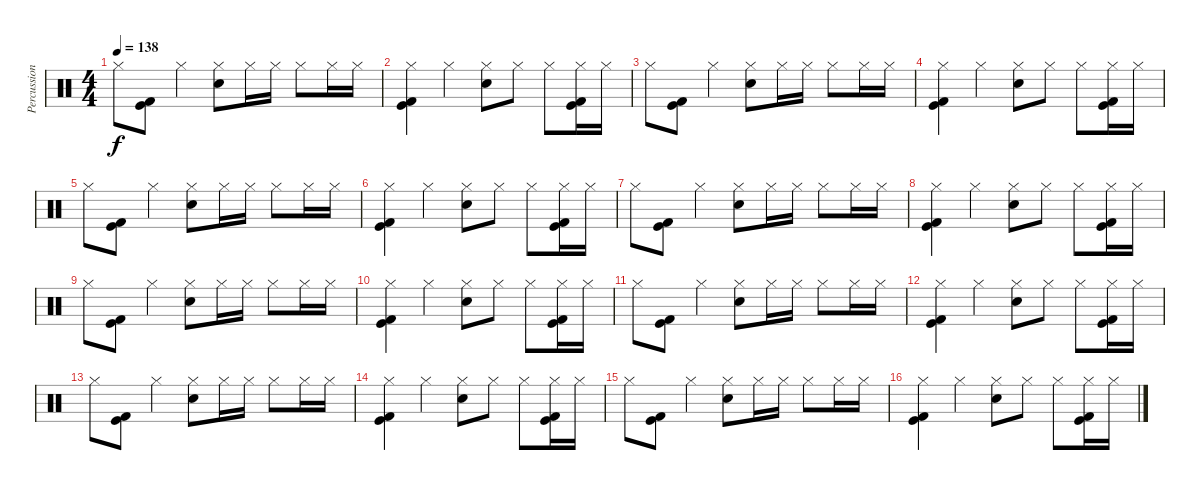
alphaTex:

\track ("Percussion" "Percussion") {instrument percussion}
\staff {score}
\articulation defaults
\ts (4 4)
\tempo 138
\clef neutral
\ks c "Hi-Hat (closed)".8{dy f}
("Kick (hit)" "Kick (hit) 2").8 "Hi-Hat (closed)".4 ("Hi-Hat (closed)" "Electric Snare (hit)").8 "Hi-Hat (closed)".16 "Hi-Hat (closed)".16 "Hi-Hat (closed)".8 "Hi-Hat (closed)".16 "Hi-Hat (closed)".16 |
("Hi-Hat (closed)" "Kick (hit)" "Kick (hit) 2").4 "Hi-Hat (closed)".4 ("Hi-Hat (closed)" "Electric Snare (hit)").8 "Hi-Hat (closed)".8 "Hi-Hat (closed)".8 ("Hi-Hat (closed)" "Kick (hit)" "Kick (hit) 2").16 "Hi-Hat (closed)".16 |
"Hi-Hat (closed)".8 ("Kick (hit)" "Kick (hit) 2").8 "Hi-Hat (closed)".4 ("Hi-Hat (closed)" "Electric Snare (hit)").8 "Hi-Hat (closed)".16 "Hi-Hat (closed)".16 "Hi-Hat (closed)".8 "Hi-Hat (closed)".16 "Hi-Hat (closed)".16 |
("Hi-Hat (closed)" "Kick (hit)" "Kick (hit) 2").4 "Hi-Hat (closed)".4 ("Hi-Hat (closed)" "Electric Snare (hit)").8 "Hi-Hat (closed)".8 "Hi-Hat (closed)".8 ("Hi-Hat (closed)" "Kick (hit)" "Kick (hit) 2").16 "Hi-Hat (closed)".16 |
"Hi-Hat (closed)".8 ("Kick (hit)" "Kick (hit) 2").8 "Hi-Hat (closed)".4 ("Hi-Hat (closed)" "Electric Snare (hit)").8 "Hi-Hat (closed)".16 "Hi-Hat (closed)".16 "Hi-Hat (closed)".8 "Hi-Hat (closed)".16 "Hi-Hat (closed)".16 |
("Hi-Hat (closed)" "Kick (hit)" "Kick (hit) 2").4 "Hi-Hat (closed)".4 ("Hi-Hat (closed)" "Electric Snare (hit)").8 "Hi-Hat (closed)".8 "Hi-Hat (closed)".8 ("Hi-Hat (closed)" "Kick (hit)" "Kick (hit) 2").16 "Hi-Hat (closed)".16 |
"Hi-Hat (closed)".8 ("Kick (hit)" "Kick (hit) 2").8 "Hi-Hat (closed)".4 ("Hi-Hat (closed)" "Electric Snare (hit)").8 "Hi-Hat (closed)".16 "Hi-Hat (closed)".16 "Hi-Hat (closed)".8 "Hi-Hat (closed)".16 "Hi-Hat (closed)".16 |
("Hi-Hat (closed)" "Kick (hit)" "Kick (hit) 2").4 "Hi-Hat (closed)".4 ("Hi-Hat (closed)" "Electric Snare (hit)").8 "Hi-Hat (closed)".8 "Hi-Hat (closed)".8 ("Hi-Hat (closed)" "Kick (hit)" "Kick (hit) 2").16 "Hi-Hat (closed)".16 |
"Hi-Hat (closed)".8 ("Kick (hit)" "Kick (hit) 2").8 "Hi-Hat (closed)".4 ("Hi-Hat (closed)" "Electric Snare (hit)").8 "Hi-Hat (closed)".16 "Hi-Hat (closed)".16 "Hi-Hat (closed)".8 "Hi-Hat (closed)".16 "Hi-Hat (closed)".16 |
("Hi-Hat (closed)" "Kick (hit)" "Kick (hit) 2").4 "Hi-Hat (closed)".4 ("Hi-Hat (closed)" "Electric Snare (hit)").8 "Hi-Hat (closed)".8 "Hi-Hat (closed)".8 ("Hi-Hat (closed)" "Kick (hit)" "Kick (hit) 2").16 "Hi-Hat (closed)".16 |
"Hi-Hat (closed)".8 ("Kick (hit)" "Kick (hit) 2").8 "Hi-Hat (closed)".4 ("Hi-Hat (closed)" "Electric Snare (hit)").8 "Hi-Hat (closed)".16 "Hi-Hat (closed)".16 "Hi-Hat (closed)".8 "Hi-Hat (closed)".16 "Hi-Hat (closed)".16 |
("Hi-Hat (closed)" "Kick (hit)" "Kick (hit) 2").4 "Hi-Hat (closed)".4 ("Hi-Hat (closed)" "Electric Snare (hit)").8 "Hi-Hat (closed)".8 "Hi-Hat (closed)".8 ("Hi-Hat (closed)" "Kick (hit)" "Kick (hit) 2").16 "Hi-Hat (closed)".16 |
"Hi-Hat (closed)".8 ("Kick (hit)" "Kick (hit) 2").8 "Hi-Hat (closed)".4 ("Hi-Hat (closed)" "Electric Snare (hit)").8 "Hi-Hat (closed)".16 "Hi-Hat (closed)".16 "Hi-Hat (closed)".8 "Hi-Hat (closed)".16 "Hi-Hat (closed)".16 |
("Hi-Hat (closed)" "Kick (hit)" "Kick (hit) 2").4 "Hi-Hat (closed)".4 ("Hi-Hat (closed)" "Electric Snare (hit)").8 "Hi-Hat (closed)".8 "Hi-Hat (closed)".8 ("Hi-Hat (closed)" "Kick (hit)" "Kick (hit) 2").16 "Hi-Hat (closed)".16 |
"Hi-Hat (closed)".8 ("Kick (hit)" "Kick (hit) 2").8 "Hi-Hat (closed)".4 ("Hi-Hat (closed)" "Electric Snare (hit)").8 "Hi-Hat (closed)".16 "Hi-Hat (closed)".16 "Hi-Hat (closed)".8 "Hi-Hat (closed)".16 "Hi-Hat (closed)".16 |
("Hi-Hat (closed)" "Kick (hit)" "Kick (hit) 2").4 "Hi-Hat (closed)".4 ("Hi-Hat (closed)" "Electric Snare (hit)").8 "Hi-Hat (closed)".8 "Hi-Hat (closed)".8 ("Hi-Hat (closed)" "Kick (hit)" "Kick (hit) 2").16 "Hi-Hat (closed)".16
